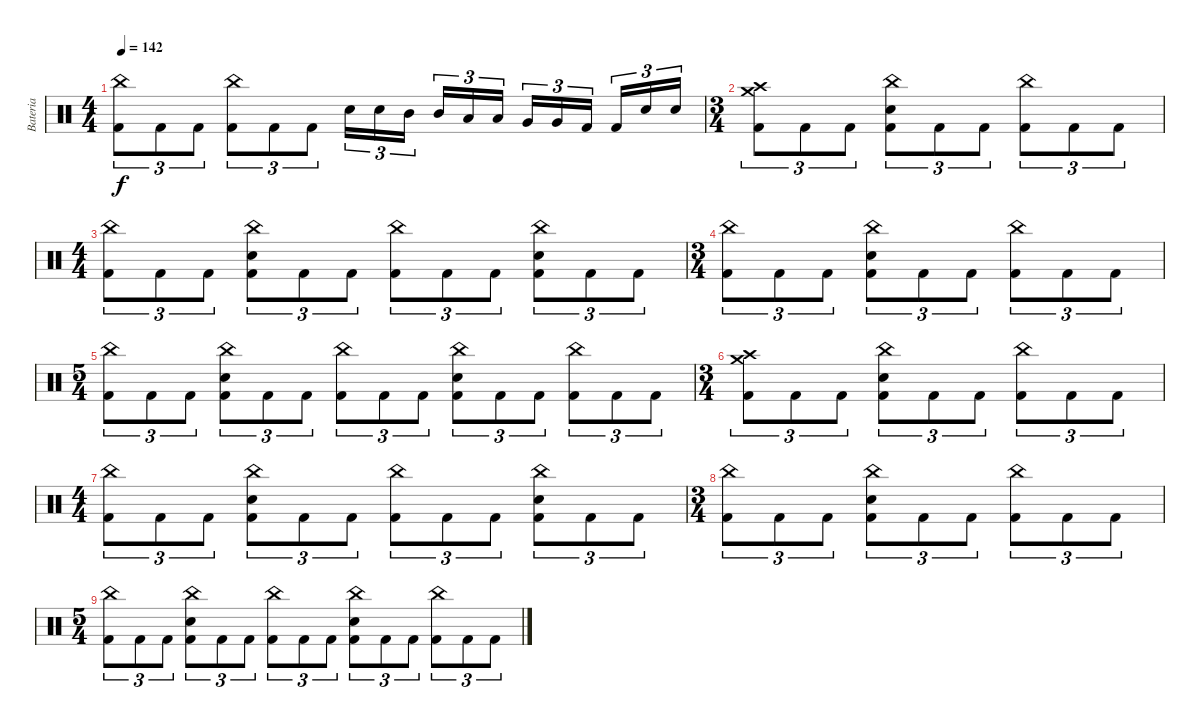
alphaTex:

\track ("Bateria" "Bateria") {instrument percussion}
\staff {score}
\articulation defaults
\ts (4 4)
\tempo 142
\clef neutral
\ks c
("China (hit)" "Kick (hit) 2").8{tu (3 2) dy f} "Kick (hit) 2".8{tu (3 2)} "Kick (hit) 2".8{tu (3 2)} ("China (hit)" "Kick (hit) 2").8{tu (3 2)} "Kick (hit) 2".8{tu (3 2)} "Kick (hit) 2".8{tu (3 2)} "Snare (hit) 2".16{tu (3 2)} "Snare (hit) 2".16{tu (3 2)} "Mid Tom (hit)".16{tu (3 2)} "Mid Tom (hit)".16{tu (3 2)} "Low Tom (hit)".16{tu (3 2)} "Low Tom (hit)".16{tu (3 2)} "Very Low Tom (hit)".16{tu (3 2)} "Very Low Tom (hit)".16{tu (3 2)} "Kick (hit) 2".16{tu (3 2)} "Kick (hit) 2".16{tu (3 2)} "Snare (hit) 2".16{tu (3 2)} "Snare (hit) 2".16{tu (3 2)} |
\ts (3 4)
("Crash high (hit)" "Crash medium (hit)" "Kick (hit) 2").8{tu (3 2)} "Kick (hit) 2".8{tu (3 2)} "Kick (hit) 2".8{tu (3 2)} ("China (hit)" "Snare (hit) 2" "Kick (hit) 2").8{tu (3 2)} "Kick (hit) 2".8{tu (3 2)} "Kick (hit) 2".8{tu (3 2)} ("China (hit)" "Kick (hit) 2").8{tu (3 2)} "Kick (hit) 2".8{tu (3 2)} "Kick (hit) 2".8{tu (3 2)} |
\ts (4 4)
("China (hit)" "Kick (hit) 2").8{tu (3 2)} "Kick (hit) 2".8{tu (3 2)} "Kick (hit) 2".8{tu (3 2)} ("China (hit)" "Snare (hit) 2" "Kick (hit) 2").8{tu (3 2)} "Kick (hit) 2".8{tu (3 2)} "Kick (hit) 2".8{tu (3 2)} ("China (hit)" "Kick (hit) 2").8{tu (3 2)} "Kick (hit) 2".8{tu (3 2)} "Kick (hit) 2".8{tu (3 2)} ("China (hit)" "Snare (hit) 2" "Kick (hit) 2").8{tu (3 2)} "Kick (hit) 2".8{tu (3 2)} "Kick (hit) 2".8{tu (3 2)} |
\ts (3 4)
("China (hit)" "Kick (hit) 2").8{tu (3 2)} "Kick (hit) 2".8{tu (3 2)} "Kick (hit) 2".8{tu (3 2)} ("China (hit)" "Snare (hit) 2" "Kick (hit) 2").8{tu (3 2)} "Kick (hit) 2".8{tu (3 2)} "Kick (hit) 2".8{tu (3 2)} ("China (hit)" "Kick (hit) 2").8{tu (3 2)} "Kick (hit) 2".8{tu (3 2)} "Kick (hit) 2".8{tu (3 2)} |
\ts (5 4)
("China (hit)" "Kick (hit) 2").8{tu (3 2)} "Kick (hit) 2".8{tu (3 2)} "Kick (hit) 2".8{tu (3 2)} ("China (hit)" "Snare (hit) 2" "Kick (hit) 2").8{tu (3 2)} "Kick (hit) 2".8{tu (3 2)} "Kick (hit) 2".8{tu (3 2)} ("China (hit)" "Kick (hit) 2").8{tu (3 2)} "Kick (hit) 2".8{tu (3 2)} "Kick (hit) 2".8{tu (3 2)} ("China (hit)" "Snare (hit) 2" "Kick (hit) 2").8{tu (3 2)} "Kick (hit) 2".8{tu (3 2)} "Kick (hit) 2".8{tu (3 2)} ("China (hit)" "Kick (hit) 2").8{tu (3 2)} "Kick (hit) 2".8{tu (3 2)} "Kick (hit) 2".8{tu (3 2)} |
\ts (3 4)
("Crash high (hit)" "Crash medium (hit)" "Kick (hit) 2").8{tu (3 2)} "Kick (hit) 2".8{tu (3 2)} "Kick (hit) 2".8{tu (3 2)} ("China (hit)" "Snare (hit) 2" "Kick (hit) 2").8{tu (3 2)} "Kick (hit) 2".8{tu (3 2)} "Kick (hit) 2".8{tu (3 2)} ("China (hit)" "Kick (hit) 2").8{tu (3 2)} "Kick (hit) 2".8{tu (3 2)} "Kick (hit) 2".8{tu (3 2)} |
\ts (4 4)
("China (hit)" "Kick (hit) 2").8{tu (3 2)} "Kick (hit) 2".8{tu (3 2)} "Kick (hit) 2".8{tu (3 2)} ("China (hit)" "Snare (hit) 2" "Kick (hit) 2").8{tu (3 2)} "Kick (hit) 2".8{tu (3 2)} "Kick (hit) 2".8{tu (3 2)} ("China (hit)" "Kick (hit) 2").8{tu (3 2)} "Kick (hit) 2".8{tu (3 2)} "Kick (hit) 2".8{tu (3 2)} ("China (hit)" "Snare (hit) 2" "Kick (hit) 2").8{tu (3 2)} "Kick (hit) 2".8{tu (3 2)} "Kick (hit) 2".8{tu (3 2)} |
\ts (3 4)
("China (hit)" "Kick (hit) 2").8{tu (3 2)} "Kick (hit) 2".8{tu (3 2)} "Kick (hit) 2".8{tu (3 2)} ("China (hit)" "Snare (hit) 2" "Kick (hit) 2").8{tu (3 2)} "Kick (hit) 2".8{tu (3 2)} "Kick (hit) 2".8{tu (3 2)} ("China (hit)" "Kick (hit) 2").8{tu (3 2)} "Kick (hit) 2".8{tu (3 2)} "Kick (hit) 2".8{tu (3 2)} |
\ts (5 4)
("China (hit)" "Kick (hit) 2").8{tu (3 2)} "Kick (hit) 2".8{tu (3 2)} "Kick (hit) 2".8{tu (3 2)} ("China (hit)" "Snare (hit) 2" "Kick (hit) 2").8{tu (3 2)} "Kick (hit) 2".8{tu (3 2)} "Kick (hit) 2".8{tu (3 2)} ("China (hit)" "Kick (hit) 2").8{tu (3 2)} "Kick (hit) 2".8{tu (3 2)} "Kick (hit) 2".8{tu (3 2)} ("China (hit)" "Snare (hit) 2" "Kick (hit) 2").8{tu (3 2)} "Kick (hit) 2".8{tu (3 2)} "Kick (hit) 2".8{tu (3 2)} ("China (hit)" "Kick (hit) 2").8{tu (3 2)} "Kick (hit) 2".8{tu (3 2)} "Kick (hit) 2".8{tu (3 2)}
